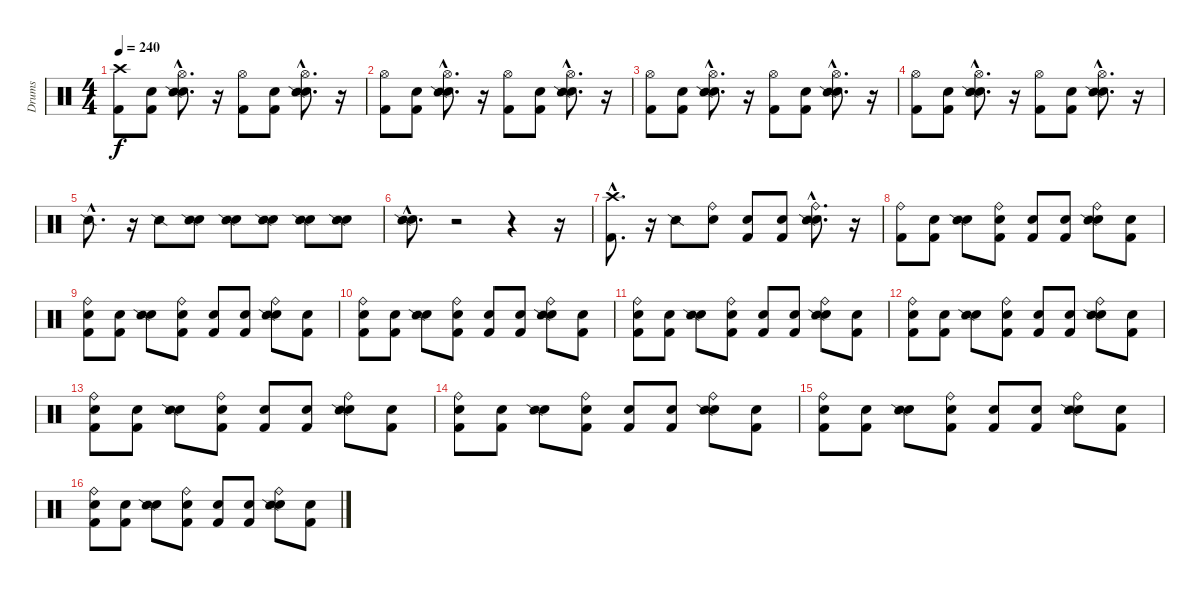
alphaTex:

\track ("Drums" "Drums") {instrument percussion}
\staff {score}
\articulation defaults
\ts (4 4)
\tempo 240
\clef neutral
\ks c
("Kick (hit) 2" "Crash high (hit)").8{dy f} ("Snare (hit)" "Kick (hit) 2").8 ("Snare (hit)"{hac} "Hi-Hat (open)"{hac} "Snare (side stick) 2"{hac}).8{d} r.16 ("Kick (hit) 2" "Hi-Hat (open)").8 ("Snare (hit)" "Kick (hit) 2").8 ("Snare (hit)"{hac} "Hi-Hat (open)"{hac} "Snare (side stick) 2"{hac}).8{d} r.16 |
("Kick (hit) 2" "Hi-Hat (open)").8 ("Snare (hit)" "Kick (hit) 2").8 ("Snare (hit)"{hac} "Hi-Hat (open)"{hac} "Snare (side stick) 2"{hac}).8{d} r.16 ("Kick (hit) 2" "Hi-Hat (open)").8 ("Snare (hit)" "Kick (hit) 2").8 ("Snare (hit)"{hac} "Hi-Hat (open)"{hac} "Snare (side stick) 2"{hac}).8{d} r.16 |
("Kick (hit) 2" "Hi-Hat (open)").8 ("Snare (hit)" "Kick (hit) 2").8 ("Snare (hit)"{hac} "Hi-Hat (open)"{hac} "Snare (side stick) 2"{hac}).8{d} r.16 ("Kick (hit) 2" "Hi-Hat (open)").8 ("Snare (hit)" "Kick (hit) 2").8 ("Snare (hit)"{hac} "Hi-Hat (open)"{hac} "Snare (side stick) 2"{hac}).8{d} r.16 |
("Kick (hit) 2" "Hi-Hat (open)").8 ("Snare (hit)" "Kick (hit) 2").8 ("Snare (hit)"{hac} "Hi-Hat (open)"{hac} "Snare (side stick) 2"{hac}).8{d} r.16 ("Kick (hit) 2" "Hi-Hat (open)").8 ("Snare (hit)" "Kick (hit) 2").8 ("Snare (hit)"{hac} "Hi-Hat (open)"{hac} "Snare (side stick) 2"{hac}).8{d} r.16 |
"Snare (side stick) 2"{hac}.8{d} r.16 "Snare (side stick) 2".8 ("Snare (hit)" "Snare (side stick) 2").8 ("Snare (hit)" "Snare (side stick) 2").8 ("Snare (hit)" "Snare (side stick) 2").8 ("Snare (hit)" "Snare (side stick) 2").8 ("Snare (hit)" "Snare (side stick) 2").8 |
("Snare (hit)"{hac} "Snare (side stick) 2"{hac}).8{d} r.2 r.4 r.16 |
("Kick (hit) 2"{hac} "Crash high (hit)"{hac}).8{d} r.16 "Snare (side stick) 2".8 ("Snare (hit)" "Ride (bell)").8 ("Snare (hit)" "Kick (hit) 2").8 ("Snare (hit)" "Kick (hit) 2").8 ("Snare (hit)"{hac} "Snare (side stick) 2"{hac} "Ride (bell)"{hac}).8{d} r.16 |
("Kick (hit) 2" "Ride (bell)").8 ("Snare (hit)" "Kick (hit) 2").8 ("Snare (hit)" "Snare (side stick) 2").8 ("Snare (hit)" "Kick (hit) 2" "Ride (bell)").8 ("Snare (hit)" "Kick (hit) 2").8 ("Snare (hit)" "Kick (hit) 2").8 ("Snare (hit)" "Ride (bell)" "Snare (side stick) 2").8 ("Snare (hit)" "Kick (hit) 2").8 |
("Snare (hit)" "Kick (hit) 2" "Ride (bell)").8 ("Snare (hit)" "Kick (hit) 2").8 ("Snare (hit)" "Snare (side stick) 2").8 ("Snare (hit)" "Kick (hit) 2" "Ride (bell)").8 ("Snare (hit)" "Kick (hit) 2").8 ("Snare (hit)" "Kick (hit) 2").8 ("Snare (hit)" "Ride (bell)" "Snare (side stick) 2").8 ("Snare (hit)" "Kick (hit) 2").8 |
("Snare (hit)" "Kick (hit) 2" "Ride (bell)").8 ("Snare (hit)" "Kick (hit) 2").8 ("Snare (hit)" "Snare (side stick) 2").8 ("Snare (hit)" "Kick (hit) 2" "Ride (bell)").8 ("Snare (hit)" "Kick (hit) 2").8 ("Snare (hit)" "Kick (hit) 2").8 ("Snare (hit)" "Ride (bell)" "Snare (side stick) 2").8 ("Snare (hit)" "Kick (hit) 2").8 |
("Snare (hit)" "Kick (hit) 2" "Ride (bell)").8 ("Snare (hit)" "Kick (hit) 2").8 ("Snare (hit)" "Snare (side stick) 2").8 ("Snare (hit)" "Kick (hit) 2" "Ride (bell)").8 ("Snare (hit)" "Kick (hit) 2").8 ("Snare (hit)" "Kick (hit) 2").8 ("Snare (hit)" "Ride (bell)" "Snare (side stick) 2").8 ("Snare (hit)" "Kick (hit) 2").8 |
("Snare (hit)" "Kick (hit) 2" "Ride (bell)").8 ("Snare (hit)" "Kick (hit) 2").8 ("Snare (hit)" "Snare (side stick) 2").8 ("Snare (hit)" "Kick (hit) 2" "Ride (bell)").8 ("Snare (hit)" "Kick (hit) 2").8 ("Snare (hit)" "Kick (hit) 2").8 ("Snare (hit)" "Ride (bell)" "Snare (side stick) 2").8 ("Snare (hit)" "Kick (hit) 2").8 |
("Snare (hit)" "Kick (hit) 2" "Ride (bell)").8 ("Snare (hit)" "Kick (hit) 2").8 ("Snare (hit)" "Snare (side stick) 2").8 ("Snare (hit)" "Kick (hit) 2" "Ride (bell)").8 ("Snare (hit)" "Kick (hit) 2").8 ("Snare (hit)" "Kick (hit) 2").8 ("Snare (hit)" "Ride (bell)" "Snare (side stick) 2").8 ("Snare (hit)" "Kick (hit) 2").8 |
("Snare (hit)" "Kick (hit) 2" "Ride (bell)").8 ("Snare (hit)" "Kick (hit) 2").8 ("Snare (hit)" "Snare (side stick) 2").8 ("Snare (hit)" "Kick (hit) 2" "Ride (bell)").8 ("Snare (hit)" "Kick (hit) 2").8 ("Snare (hit)" "Kick (hit) 2").8 ("Snare (hit)" "Ride (bell)" "Snare (side stick) 2").8 ("Snare (hit)" "Kick (hit) 2").8 |
("Snare (hit)" "Kick (hit) 2" "Ride (bell)").8 ("Snare (hit)" "Kick (hit) 2").8 ("Snare (hit)" "Snare (side stick) 2").8 ("Snare (hit)" "Kick (hit) 2" "Ride (bell)").8 ("Snare (hit)" "Kick (hit) 2").8 ("Snare (hit)" "Kick (hit) 2").8 ("Snare (hit)" "Ride (bell)" "Snare (side stick) 2").8 ("Snare (hit)" "Kick (hit) 2").8 |
("Snare (hit)" "Kick (hit) 2" "Ride (bell)").8 ("Snare (hit)" "Kick (hit) 2").8 ("Snare (hit)" "Snare (side stick) 2").8 ("Snare (hit)" "Kick (hit) 2" "Ride (bell)").8 ("Snare (hit)" "Kick (hit) 2").8 ("Snare (hit)" "Kick (hit) 2").8 ("Snare (hit)" "Ride (bell)" "Snare (side stick) 2").8 ("Snare (hit)" "Kick (hit) 2").8
